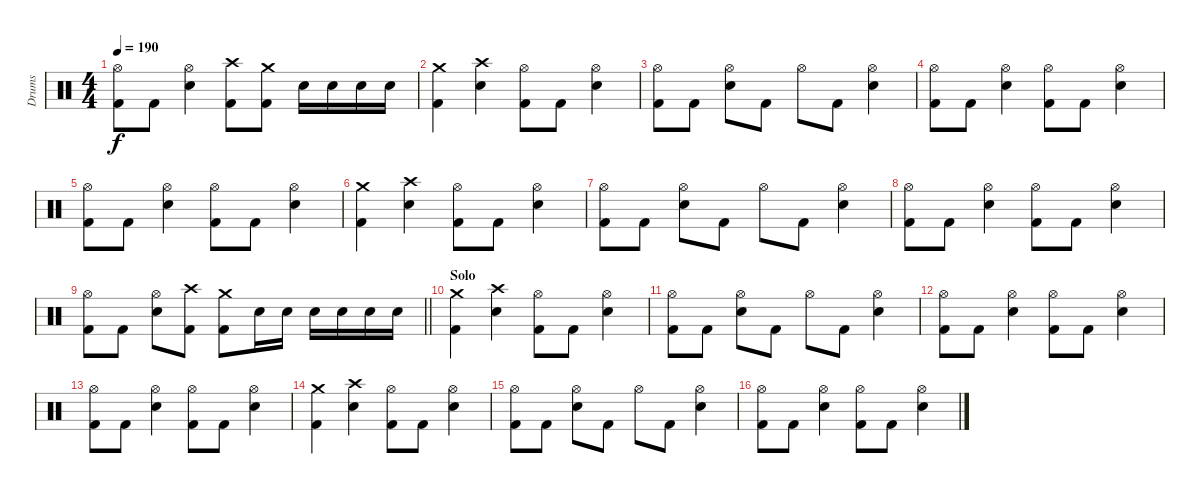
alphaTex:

\track ("Drums" "Drums") {instrument percussion}
\staff {score}
\articulation defaults
\ts (4 4)
\tempo 190
\clef neutral
\ks c
("Hi-Hat (open)" "Kick (hit) 2").8{dy f} "Kick (hit) 2".8 ("Hi-Hat (open)" "Electric Snare (hit)").4 ("Crash high (hit)" "Kick (hit) 2").8 ("Crash medium (hit)" "Kick (hit) 2").8 "Electric Snare (hit)".16 "Electric Snare (hit)".16 "Electric Snare (hit)".16 "Electric Snare (hit)".16 |
("Crash medium (hit)" "Kick (hit) 2").4 ("Crash high (hit)" "Electric Snare (hit)").4 ("Hi-Hat (open)" "Kick (hit) 2").8 "Kick (hit) 2".8 ("Hi-Hat (open)" "Electric Snare (hit)").4 |
("Hi-Hat (open)" "Kick (hit) 2").8 "Kick (hit) 2".8 ("Hi-Hat (open)" "Electric Snare (hit)").8 "Kick (hit) 2".8 "Hi-Hat (open)".8 "Kick (hit) 2".8 ("Hi-Hat (open)" "Electric Snare (hit)").4 |
("Hi-Hat (open)" "Kick (hit) 2").8 "Kick (hit) 2".8 ("Hi-Hat (open)" "Electric Snare (hit)").4 ("Hi-Hat (open)" "Kick (hit) 2").8 "Kick (hit) 2".8 ("Hi-Hat (open)" "Electric Snare (hit)").4 |
("Hi-Hat (open)" "Kick (hit) 2").8 "Kick (hit) 2".8 ("Hi-Hat (open)" "Electric Snare (hit)").4 ("Hi-Hat (open)" "Kick (hit) 2").8 "Kick (hit) 2".8 ("Hi-Hat (open)" "Electric Snare (hit)").4 |
("Crash medium (hit)" "Kick (hit) 2").4 ("Crash high (hit)" "Electric Snare (hit)").4 ("Hi-Hat (open)" "Kick (hit) 2").8 "Kick (hit) 2".8 ("Hi-Hat (open)" "Electric Snare (hit)").4 |
("Hi-Hat (open)" "Kick (hit) 2").8 "Kick (hit) 2".8 ("Hi-Hat (open)" "Electric Snare (hit)").8 "Kick (hit) 2".8 "Hi-Hat (open)".8 "Kick (hit) 2".8 ("Hi-Hat (open)" "Electric Snare (hit)").4 |
("Hi-Hat (open)" "Kick (hit) 2").8 "Kick (hit) 2".8 ("Hi-Hat (open)" "Electric Snare (hit)").4 ("Hi-Hat (open)" "Kick (hit) 2").8 "Kick (hit) 2".8 ("Hi-Hat (open)" "Electric Snare (hit)").4 |
\barLineRight lightlight
("Hi-Hat (open)" "Kick (hit) 2").8 "Kick (hit) 2".8 ("Hi-Hat (open)" "Electric Snare (hit)").8 ("Crash high (hit)" "Kick (hit) 2").8 ("Crash medium (hit)" "Kick (hit) 2").8 "Electric Snare (hit)".16 "Electric Snare (hit)".16 "Electric Snare (hit)".16 "Electric Snare (hit)".16 "Electric Snare (hit)".16 "Electric Snare (hit)".16 |
\section ("" "Solo")
("Crash medium (hit)" "Kick (hit) 2").4 ("Crash high (hit)" "Electric Snare (hit)").4 ("Hi-Hat (open)" "Kick (hit) 2").8 "Kick (hit) 2".8 ("Hi-Hat (open)" "Electric Snare (hit)").4 |
("Hi-Hat (open)" "Kick (hit) 2").8 "Kick (hit) 2".8 ("Hi-Hat (open)" "Electric Snare (hit)").8 "Kick (hit) 2".8 "Hi-Hat (open)".8 "Kick (hit) 2".8 ("Hi-Hat (open)" "Electric Snare (hit)").4 |
("Hi-Hat (open)" "Kick (hit) 2").8 "Kick (hit) 2".8 ("Hi-Hat (open)" "Electric Snare (hit)").4 ("Hi-Hat (open)" "Kick (hit) 2").8 "Kick (hit) 2".8 ("Hi-Hat (open)" "Electric Snare (hit)").4 |
("Hi-Hat (open)" "Kick (hit) 2").8 "Kick (hit) 2".8 ("Hi-Hat (open)" "Electric Snare (hit)").4 ("Hi-Hat (open)" "Kick (hit) 2").8 "Kick (hit) 2".8 ("Hi-Hat (open)" "Electric Snare (hit)").4 |
("Crash medium (hit)" "Kick (hit) 2").4 ("Crash high (hit)" "Electric Snare (hit)").4 ("Hi-Hat (open)" "Kick (hit) 2").8 "Kick (hit) 2".8 ("Hi-Hat (open)" "Electric Snare (hit)").4 |
("Hi-Hat (open)" "Kick (hit) 2").8 "Kick (hit) 2".8 ("Hi-Hat (open)" "Electric Snare (hit)").8 "Kick (hit) 2".8 "Hi-Hat (open)".8 "Kick (hit) 2".8 ("Hi-Hat (open)" "Electric Snare (hit)").4 |
("Hi-Hat (open)" "Kick (hit) 2").8 "Kick (hit) 2".8 ("Hi-Hat (open)" "Electric Snare (hit)").4 ("Hi-Hat (open)" "Kick (hit) 2").8 "Kick (hit) 2".8 ("Hi-Hat (open)" "Electric Snare (hit)").4
